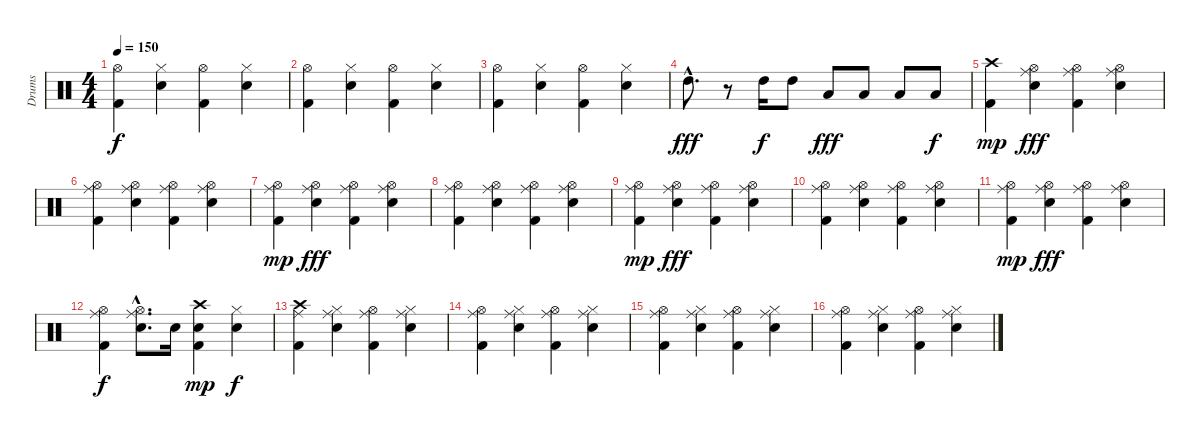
\track ("Drums" "Drums") {instrument percussion}
\staff {score}
\articulation defaults
\ts (4 4)
\tempo 150
\clef neutral
\ks c
("Kick (hit) 2" "Hi-Hat (open)").4{dy f} ("Electric Snare (hit)" "Hi-Hat (closed)").4 ("Kick (hit) 2" "Hi-Hat (open)").4 ("Electric Snare (hit)" "Hi-Hat (closed)").4 |
("Kick (hit) 2" "Hi-Hat (open)").4 ("Electric Snare (hit)" "Hi-Hat (closed)").4 ("Kick (hit) 2" "Hi-Hat (open)").4 ("Electric Snare (hit)" "Hi-Hat (closed)").4 |
("Kick (hit) 2" "Hi-Hat (open)").4 ("Electric Snare (hit)" "Hi-Hat (closed)").4 ("Kick (hit) 2" "Hi-Hat (open)").4 ("Electric Snare (hit)" "Hi-Hat (closed)").4 |
"High Tom (hit)"{tr (48 16) hac}.8{d dy fff} r.8 "High Tom (hit)".16{dy f} "High Tom (hit)".8 "Low Floor Tom (hit)".8{dy fff} "Low Floor Tom (hit)".8 "Low Floor Tom (hit)".8 "Low Floor Tom (hit)".8{dy f} |
("Kick (hit) 2" "Crash high (hit)").4{dy mp} ("Electric Snare (hit)" "Hi-Hat (open)" "Ride (middle)").4{dy fff} ("Kick (hit) 2" "Hi-Hat (open)" "Ride (middle)").4 ("Electric Snare (hit)" "Hi-Hat (open)" "Ride (middle)").4 |
("Kick (hit) 2" "Hi-Hat (open)" "Ride (middle)").4 ("Electric Snare (hit)" "Hi-Hat (open)" "Ride (middle)").4 ("Kick (hit) 2" "Hi-Hat (open)" "Ride (middle)").4 ("Electric Snare (hit)" "Hi-Hat (open)" "Ride (middle)").4 |
("Kick (hit) 2" "Hi-Hat (open)" "Ride (middle)").4{dy mp} ("Electric Snare (hit)" "Hi-Hat (open)" "Ride (middle)").4{dy fff} ("Kick (hit) 2" "Hi-Hat (open)" "Ride (middle)").4 ("Electric Snare (hit)" "Hi-Hat (open)" "Ride (middle)").4 |
("Kick (hit) 2" "Hi-Hat (open)" "Ride (middle)").4 ("Electric Snare (hit)" "Hi-Hat (open)" "Ride (middle)").4 ("Kick (hit) 2" "Hi-Hat (open)" "Ride (middle)").4 ("Electric Snare (hit)" "Hi-Hat (open)" "Ride (middle)").4 |
("Kick (hit) 2" "Hi-Hat (open)" "Ride (middle)").4{dy mp} ("Electric Snare (hit)" "Hi-Hat (open)" "Ride (middle)").4{dy fff} ("Kick (hit) 2" "Hi-Hat (open)" "Ride (middle)").4 ("Electric Snare (hit)" "Hi-Hat (open)" "Ride (middle)").4 |
("Kick (hit) 2" "Hi-Hat (open)" "Ride (middle)").4 ("Electric Snare (hit)" "Hi-Hat (open)" "Ride (middle)").4 ("Kick (hit) 2" "Hi-Hat (open)" "Ride (middle)").4 ("Electric Snare (hit)" "Hi-Hat (open)" "Ride (middle)").4 |
("Kick (hit) 2" "Hi-Hat (open)" "Ride (middle)").4{dy mp} ("Electric Snare (hit)" "Hi-Hat (open)" "Ride (middle)").4{dy fff} ("Kick (hit) 2" "Hi-Hat (open)" "Ride (middle)").4 ("Electric Snare (hit)" "Hi-Hat (open)" "Ride (middle)").4 |
("Kick (hit) 2" "Hi-Hat (open)" "Ride (middle)").4{dy f} ("Electric Snare (hit)"{hac} "Hi-Hat (open)"{hac} "Ride (middle)"{hac}).8{d} "Electric Snare (hit)".16 ("Electric Snare (hit)" "Kick (hit) 2" "Crash high (hit)").4{dy mp} ("Electric Snare (hit)" "Hi-Hat (closed)").4{dy f} |
("Kick (hit) 2" "Ride (middle)" "Crash high (hit)").4 ("Electric Snare (hit)" "Ride (middle)" "Hi-Hat (closed)").4 ("Kick (hit) 2" "Ride (middle)" "Hi-Hat (open)").4 ("Electric Snare (hit)" "Ride (middle)" "Hi-Hat (closed)").4 |
("Kick (hit) 2" "Ride (middle)" "Hi-Hat (open)").4 ("Electric Snare (hit)" "Ride (middle)" "Hi-Hat (closed)").4 ("Kick (hit) 2" "Ride (middle)" "Hi-Hat (open)").4 ("Electric Snare (hit)" "Ride (middle)" "Hi-Hat (closed)").4 |
("Kick (hit) 2" "Ride (middle)" "Hi-Hat (open)").4 ("Electric Snare (hit)" "Ride (middle)" "Hi-Hat (closed)").4 ("Kick (hit) 2" "Ride (middle)" "Hi-Hat (open)").4 ("Electric Snare (hit)" "Ride (middle)" "Hi-Hat (closed)").4 |
("Kick (hit) 2" "Ride (middle)" "Hi-Hat (open)").4 ("Electric Snare (hit)" "Ride (middle)" "Hi-Hat (closed)").4 ("Kick (hit) 2" "Ride (middle)" "Hi-Hat (open)").4 ("Electric Snare (hit)" "Ride (middle)" "Hi-Hat (closed)").4
